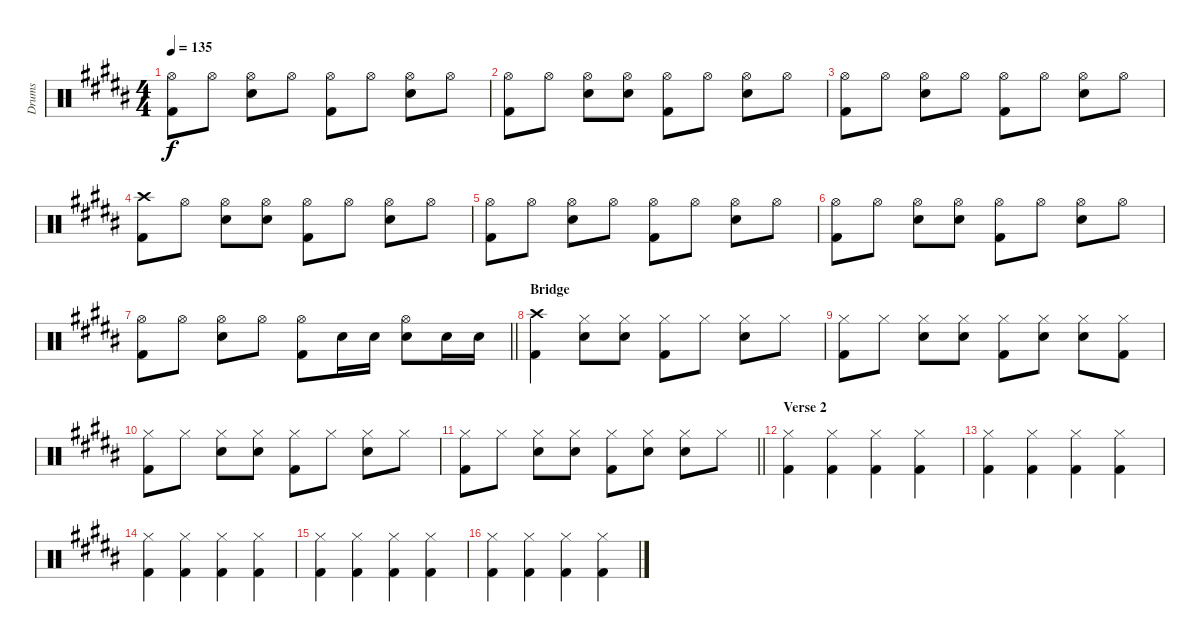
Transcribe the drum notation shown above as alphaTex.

\track ("Drums" "Drums") {instrument percussion}
\staff {score}
\articulation defaults
\ts (4 4)
\tempo 135
\clef neutral
\ks b
("Hi-Hat (open)" "Kick (hit) 2").8{dy f} "Hi-Hat (open)".8 ("Hi-Hat (open)" "Snare (hit) 2").8 "Hi-Hat (open)".8 ("Hi-Hat (open)" "Kick (hit) 2").8 "Hi-Hat (open)".8 ("Hi-Hat (open)" "Snare (hit) 2").8 "Hi-Hat (open)".8 |
("Hi-Hat (open)" "Kick (hit) 2").8 "Hi-Hat (open)".8 ("Hi-Hat (open)" "Snare (hit) 2").8 ("Hi-Hat (open)" "Snare (hit) 2").8 ("Hi-Hat (open)" "Kick (hit) 2").8 "Hi-Hat (open)".8 ("Hi-Hat (open)" "Snare (hit) 2").8 "Hi-Hat (open)".8 |
("Hi-Hat (open)" "Kick (hit) 2").8 "Hi-Hat (open)".8 ("Hi-Hat (open)" "Snare (hit) 2").8 "Hi-Hat (open)".8 ("Hi-Hat (open)" "Kick (hit) 2").8 "Hi-Hat (open)".8 ("Hi-Hat (open)" "Snare (hit) 2").8 "Hi-Hat (open)".8 |
("Crash high (hit)" "Kick (hit) 2").8 "Hi-Hat (open)".8 ("Hi-Hat (open)" "Snare (hit) 2").8 ("Hi-Hat (open)" "Snare (hit) 2").8 ("Hi-Hat (open)" "Kick (hit) 2").8 "Hi-Hat (open)".8 ("Hi-Hat (open)" "Snare (hit) 2").8 "Hi-Hat (open)".8 |
("Hi-Hat (open)" "Kick (hit) 2").8 "Hi-Hat (open)".8 ("Hi-Hat (open)" "Snare (hit) 2").8 "Hi-Hat (open)".8 ("Hi-Hat (open)" "Kick (hit) 2").8 "Hi-Hat (open)".8 ("Hi-Hat (open)" "Snare (hit) 2").8 "Hi-Hat (open)".8 |
("Hi-Hat (open)" "Kick (hit) 2").8 "Hi-Hat (open)".8 ("Hi-Hat (open)" "Snare (hit) 2").8 ("Hi-Hat (open)" "Snare (hit) 2").8 ("Hi-Hat (open)" "Kick (hit) 2").8 "Hi-Hat (open)".8 ("Hi-Hat (open)" "Snare (hit) 2").8 "Hi-Hat (open)".8 |
\barLineRight lightlight
("Hi-Hat (open)" "Kick (hit) 2").8 "Hi-Hat (open)".8 ("Hi-Hat (open)" "Snare (hit) 2").8 "Hi-Hat (open)".8 ("Hi-Hat (open)" "Kick (hit) 2").8 "Snare (hit) 2".16 "Snare (hit) 2".16 ("Hi-Hat (open)" "Snare (hit) 2").8 "Snare (hit) 2".16 "Snare (hit) 2".16 |
\section ("" "Bridge")
("Crash high (hit)" "Kick (hit) 2").4 ("Hi-Hat (closed)" "Snare (hit) 2").8 ("Hi-Hat (closed)" "Snare (hit) 2").8 ("Hi-Hat (closed)" "Kick (hit) 2").8 "Hi-Hat (closed)".8 ("Hi-Hat (closed)" "Snare (hit) 2").8 "Hi-Hat (closed)".8 |
("Hi-Hat (closed)" "Kick (hit) 2").8 "Hi-Hat (closed)".8 ("Hi-Hat (closed)" "Snare (hit) 2").8 ("Hi-Hat (closed)" "Snare (hit) 2").8 ("Hi-Hat (closed)" "Kick (hit) 2").8 ("Hi-Hat (closed)" "Snare (hit) 2").8 ("Hi-Hat (closed)" "Snare (hit) 2").8 ("Hi-Hat (closed)" "Kick (hit) 2").8 |
("Hi-Hat (closed)" "Kick (hit) 2").8 "Hi-Hat (closed)".8 ("Hi-Hat (closed)" "Snare (hit) 2").8 ("Hi-Hat (closed)" "Snare (hit) 2").8 ("Hi-Hat (closed)" "Kick (hit) 2").8 "Hi-Hat (closed)".8 ("Hi-Hat (closed)" "Snare (hit) 2").8 "Hi-Hat (closed)".8 |
\barLineRight lightlight
("Hi-Hat (closed)" "Kick (hit) 2").8 "Hi-Hat (closed)".8 ("Hi-Hat (closed)" "Snare (hit) 2").8 ("Hi-Hat (closed)" "Snare (hit) 2").8 ("Hi-Hat (closed)" "Kick (hit) 2").8 ("Hi-Hat (closed)" "Snare (hit) 2").8 ("Hi-Hat (closed)" "Snare (hit) 2").8 "Hi-Hat (closed)".8 |
\section ("" "Verse 2")
("Hi-Hat (closed)" "Kick (hit) 2").4 ("Hi-Hat (closed)" "Kick (hit) 2").4 ("Hi-Hat (closed)" "Kick (hit) 2").4 ("Hi-Hat (closed)" "Kick (hit) 2").4 |
("Hi-Hat (closed)" "Kick (hit) 2").4 ("Hi-Hat (closed)" "Kick (hit) 2").4 ("Hi-Hat (closed)" "Kick (hit) 2").4 ("Hi-Hat (closed)" "Kick (hit) 2").4 |
("Hi-Hat (closed)" "Kick (hit) 2").4 ("Hi-Hat (closed)" "Kick (hit) 2").4 ("Hi-Hat (closed)" "Kick (hit) 2").4 ("Hi-Hat (closed)" "Kick (hit) 2").4 |
("Hi-Hat (closed)" "Kick (hit) 2").4 ("Hi-Hat (closed)" "Kick (hit) 2").4 ("Hi-Hat (closed)" "Kick (hit) 2").4 ("Hi-Hat (closed)" "Kick (hit) 2").4 |
("Hi-Hat (closed)" "Kick (hit) 2").4 ("Hi-Hat (closed)" "Kick (hit) 2").4 ("Hi-Hat (closed)" "Kick (hit) 2").4 ("Hi-Hat (closed)" "Kick (hit) 2").4
